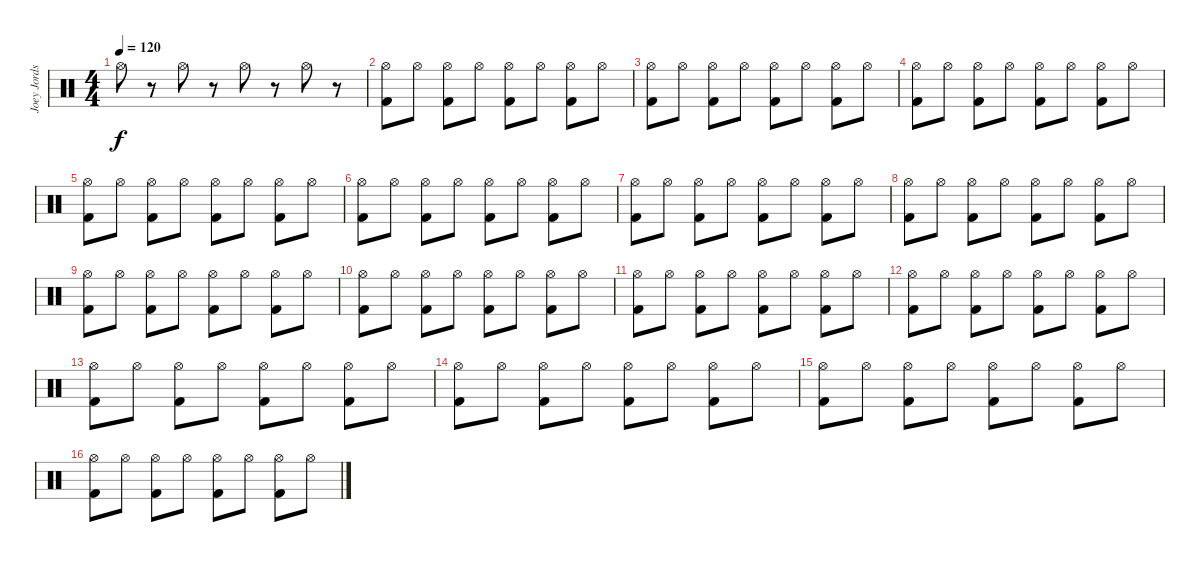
\track ("Joey Jordson" "Joey Jords") {instrument percussion}
\staff {score}
\articulation defaults
\ts (4 4)
\tempo 120
\clef neutral
\ks c "Hi-Hat (open)".8{dy f}
r.8 "Hi-Hat (open)".8 r.8 "Hi-Hat (open)".8 r.8 "Hi-Hat (open)".8 r.8 |
("Hi-Hat (open)" "Kick (hit) 2").8 "Hi-Hat (open)".8 ("Hi-Hat (open)" "Kick (hit) 2").8 "Hi-Hat (open)".8 ("Hi-Hat (open)" "Kick (hit) 2").8 "Hi-Hat (open)".8 ("Hi-Hat (open)" "Kick (hit) 2").8 "Hi-Hat (open)".8 |
("Hi-Hat (open)" "Kick (hit) 2").8 "Hi-Hat (open)".8 ("Hi-Hat (open)" "Kick (hit) 2").8 "Hi-Hat (open)".8 ("Hi-Hat (open)" "Kick (hit) 2").8 "Hi-Hat (open)".8 ("Hi-Hat (open)" "Kick (hit) 2").8 "Hi-Hat (open)".8 |
("Hi-Hat (open)" "Kick (hit) 2").8 "Hi-Hat (open)".8 ("Hi-Hat (open)" "Kick (hit) 2").8 "Hi-Hat (open)".8 ("Hi-Hat (open)" "Kick (hit) 2").8 "Hi-Hat (open)".8 ("Hi-Hat (open)" "Kick (hit) 2").8 "Hi-Hat (open)".8 |
("Hi-Hat (open)" "Kick (hit) 2").8 "Hi-Hat (open)".8 ("Hi-Hat (open)" "Kick (hit) 2").8 "Hi-Hat (open)".8 ("Hi-Hat (open)" "Kick (hit) 2").8 "Hi-Hat (open)".8 ("Hi-Hat (open)" "Kick (hit) 2").8 "Hi-Hat (open)".8 |
("Hi-Hat (open)" "Kick (hit) 2").8 "Hi-Hat (open)".8 ("Hi-Hat (open)" "Kick (hit) 2").8 "Hi-Hat (open)".8 ("Hi-Hat (open)" "Kick (hit) 2").8 "Hi-Hat (open)".8 ("Hi-Hat (open)" "Kick (hit) 2").8 "Hi-Hat (open)".8 |
("Hi-Hat (open)" "Kick (hit) 2").8 "Hi-Hat (open)".8 ("Hi-Hat (open)" "Kick (hit) 2").8 "Hi-Hat (open)".8 ("Hi-Hat (open)" "Kick (hit) 2").8 "Hi-Hat (open)".8 ("Hi-Hat (open)" "Kick (hit) 2").8 "Hi-Hat (open)".8 |
("Hi-Hat (open)" "Kick (hit) 2").8 "Hi-Hat (open)".8 ("Hi-Hat (open)" "Kick (hit) 2").8 "Hi-Hat (open)".8 ("Hi-Hat (open)" "Kick (hit) 2").8 "Hi-Hat (open)".8 ("Hi-Hat (open)" "Kick (hit) 2").8 "Hi-Hat (open)".8 |
("Hi-Hat (open)" "Kick (hit) 2").8 "Hi-Hat (open)".8 ("Hi-Hat (open)" "Kick (hit) 2").8 "Hi-Hat (open)".8 ("Hi-Hat (open)" "Kick (hit) 2").8 "Hi-Hat (open)".8 ("Hi-Hat (open)" "Kick (hit) 2").8 "Hi-Hat (open)".8 |
("Hi-Hat (open)" "Kick (hit) 2").8 "Hi-Hat (open)".8 ("Hi-Hat (open)" "Kick (hit) 2").8 "Hi-Hat (open)".8 ("Hi-Hat (open)" "Kick (hit) 2").8 "Hi-Hat (open)".8 ("Hi-Hat (open)" "Kick (hit) 2").8 "Hi-Hat (open)".8 |
("Hi-Hat (open)" "Kick (hit) 2").8 "Hi-Hat (open)".8 ("Hi-Hat (open)" "Kick (hit) 2").8 "Hi-Hat (open)".8 ("Hi-Hat (open)" "Kick (hit) 2").8 "Hi-Hat (open)".8 ("Hi-Hat (open)" "Kick (hit) 2").8 "Hi-Hat (open)".8 |
("Hi-Hat (open)" "Kick (hit) 2").8 "Hi-Hat (open)".8 ("Hi-Hat (open)" "Kick (hit) 2").8 "Hi-Hat (open)".8 ("Hi-Hat (open)" "Kick (hit) 2").8 "Hi-Hat (open)".8 ("Hi-Hat (open)" "Kick (hit) 2").8 "Hi-Hat (open)".8 |
("Hi-Hat (open)" "Kick (hit) 2").8 "Hi-Hat (open)".8 ("Hi-Hat (open)" "Kick (hit) 2").8 "Hi-Hat (open)".8 ("Hi-Hat (open)" "Kick (hit) 2").8 "Hi-Hat (open)".8 ("Hi-Hat (open)" "Kick (hit) 2").8 "Hi-Hat (open)".8 |
("Hi-Hat (open)" "Kick (hit) 2").8 "Hi-Hat (open)".8 ("Hi-Hat (open)" "Kick (hit) 2").8 "Hi-Hat (open)".8 ("Hi-Hat (open)" "Kick (hit) 2").8 "Hi-Hat (open)".8 ("Hi-Hat (open)" "Kick (hit) 2").8 "Hi-Hat (open)".8 |
("Hi-Hat (open)" "Kick (hit) 2").8 "Hi-Hat (open)".8 ("Hi-Hat (open)" "Kick (hit) 2").8 "Hi-Hat (open)".8 ("Hi-Hat (open)" "Kick (hit) 2").8 "Hi-Hat (open)".8 ("Hi-Hat (open)" "Kick (hit) 2").8 "Hi-Hat (open)".8 |
("Hi-Hat (open)" "Kick (hit) 2").8 "Hi-Hat (open)".8 ("Hi-Hat (open)" "Kick (hit) 2").8 "Hi-Hat (open)".8 ("Hi-Hat (open)" "Kick (hit) 2").8 "Hi-Hat (open)".8 ("Hi-Hat (open)" "Kick (hit) 2").8 "Hi-Hat (open)".8
